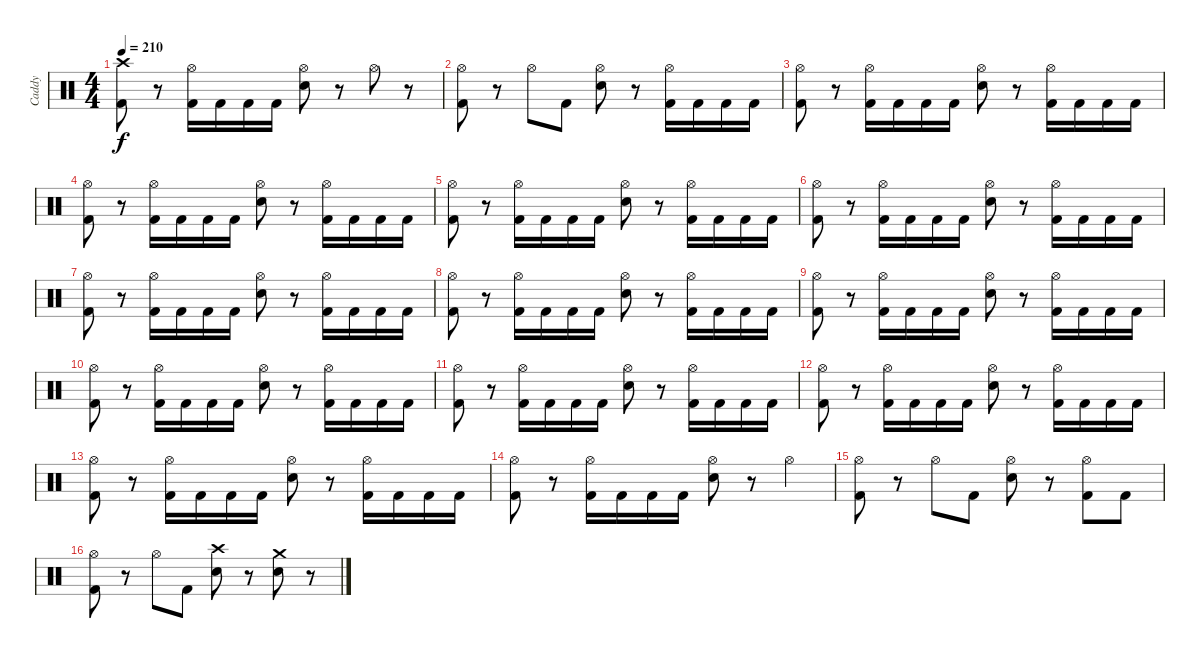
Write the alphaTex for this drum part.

\track ("Caddy" "Caddy") {instrument percussion}
\staff {score}
\articulation defaults
\ts (4 4)
\tempo 210
\clef neutral
\ks c
("Crash high (hit)" "Kick (hit) 2").8{dy f} r.8 ("Hi-Hat (open)" "Kick (hit) 2").16 "Kick (hit) 2".16 "Kick (hit) 2".16 "Kick (hit) 2".16 ("Hi-Hat (open)" "Electric Snare (hit)").8 r.8 "Hi-Hat (open)".8 r.8 |
("Hi-Hat (open)" "Kick (hit) 2").8 r.8 "Hi-Hat (open)".8 "Kick (hit) 2".8 ("Hi-Hat (open)" "Electric Snare (hit)").8 r.8 ("Hi-Hat (open)" "Kick (hit) 2").16 "Kick (hit) 2".16 "Kick (hit) 2".16 "Kick (hit) 2".16 |
("Hi-Hat (open)" "Kick (hit) 2").8 r.8 ("Hi-Hat (open)" "Kick (hit) 2").16 "Kick (hit) 2".16 "Kick (hit) 2".16 "Kick (hit) 2".16 ("Hi-Hat (open)" "Electric Snare (hit)").8 r.8 ("Hi-Hat (open)" "Kick (hit) 2").16 "Kick (hit) 2".16 "Kick (hit) 2".16 "Kick (hit) 2".16 |
("Hi-Hat (open)" "Kick (hit) 2").8 r.8 ("Hi-Hat (open)" "Kick (hit) 2").16 "Kick (hit) 2".16 "Kick (hit) 2".16 "Kick (hit) 2".16 ("Hi-Hat (open)" "Electric Snare (hit)").8 r.8 ("Hi-Hat (open)" "Kick (hit) 2").16 "Kick (hit) 2".16 "Kick (hit) 2".16 "Kick (hit) 2".16 |
("Hi-Hat (open)" "Kick (hit) 2").8 r.8 ("Hi-Hat (open)" "Kick (hit) 2").16 "Kick (hit) 2".16 "Kick (hit) 2".16 "Kick (hit) 2".16 ("Hi-Hat (open)" "Electric Snare (hit)").8 r.8 ("Hi-Hat (open)" "Kick (hit) 2").16 "Kick (hit) 2".16 "Kick (hit) 2".16 "Kick (hit) 2".16 |
("Hi-Hat (open)" "Kick (hit) 2").8 r.8 ("Hi-Hat (open)" "Kick (hit) 2").16 "Kick (hit) 2".16 "Kick (hit) 2".16 "Kick (hit) 2".16 ("Hi-Hat (open)" "Electric Snare (hit)").8 r.8 ("Hi-Hat (open)" "Kick (hit) 2").16 "Kick (hit) 2".16 "Kick (hit) 2".16 "Kick (hit) 2".16 |
("Hi-Hat (open)" "Kick (hit) 2").8 r.8 ("Hi-Hat (open)" "Kick (hit) 2").16 "Kick (hit) 2".16 "Kick (hit) 2".16 "Kick (hit) 2".16 ("Hi-Hat (open)" "Electric Snare (hit)").8 r.8 ("Hi-Hat (open)" "Kick (hit) 2").16 "Kick (hit) 2".16 "Kick (hit) 2".16 "Kick (hit) 2".16 |
("Hi-Hat (open)" "Kick (hit) 2").8 r.8 ("Hi-Hat (open)" "Kick (hit) 2").16 "Kick (hit) 2".16 "Kick (hit) 2".16 "Kick (hit) 2".16 ("Hi-Hat (open)" "Electric Snare (hit)").8 r.8 ("Hi-Hat (open)" "Kick (hit) 2").16 "Kick (hit) 2".16 "Kick (hit) 2".16 "Kick (hit) 2".16 |
("Hi-Hat (open)" "Kick (hit) 2").8 r.8 ("Hi-Hat (open)" "Kick (hit) 2").16 "Kick (hit) 2".16 "Kick (hit) 2".16 "Kick (hit) 2".16 ("Hi-Hat (open)" "Electric Snare (hit)").8 r.8 ("Hi-Hat (open)" "Kick (hit) 2").16 "Kick (hit) 2".16 "Kick (hit) 2".16 "Kick (hit) 2".16 |
("Hi-Hat (open)" "Kick (hit) 2").8 r.8 ("Hi-Hat (open)" "Kick (hit) 2").16 "Kick (hit) 2".16 "Kick (hit) 2".16 "Kick (hit) 2".16 ("Hi-Hat (open)" "Electric Snare (hit)").8 r.8 ("Hi-Hat (open)" "Kick (hit) 2").16 "Kick (hit) 2".16 "Kick (hit) 2".16 "Kick (hit) 2".16 |
("Hi-Hat (open)" "Kick (hit) 2").8 r.8 ("Hi-Hat (open)" "Kick (hit) 2").16 "Kick (hit) 2".16 "Kick (hit) 2".16 "Kick (hit) 2".16 ("Hi-Hat (open)" "Electric Snare (hit)").8 r.8 ("Hi-Hat (open)" "Kick (hit) 2").16 "Kick (hit) 2".16 "Kick (hit) 2".16 "Kick (hit) 2".16 |
("Hi-Hat (open)" "Kick (hit) 2").8 r.8 ("Hi-Hat (open)" "Kick (hit) 2").16 "Kick (hit) 2".16 "Kick (hit) 2".16 "Kick (hit) 2".16 ("Hi-Hat (open)" "Electric Snare (hit)").8 r.8 ("Hi-Hat (open)" "Kick (hit) 2").16 "Kick (hit) 2".16 "Kick (hit) 2".16 "Kick (hit) 2".16 |
("Hi-Hat (open)" "Kick (hit) 2").8 r.8 ("Hi-Hat (open)" "Kick (hit) 2").16 "Kick (hit) 2".16 "Kick (hit) 2".16 "Kick (hit) 2".16 ("Hi-Hat (open)" "Electric Snare (hit)").8 r.8 ("Hi-Hat (open)" "Kick (hit) 2").16 "Kick (hit) 2".16 "Kick (hit) 2".16 "Kick (hit) 2".16 |
("Hi-Hat (open)" "Kick (hit) 2").8 r.8 ("Hi-Hat (open)" "Kick (hit) 2").16 "Kick (hit) 2".16 "Kick (hit) 2".16 "Kick (hit) 2".16 ("Hi-Hat (open)" "Electric Snare (hit)").8 r.8 "Hi-Hat (open)".4 |
("Hi-Hat (open)" "Kick (hit) 2").8 r.8 "Hi-Hat (open)".8 "Kick (hit) 2".8 ("Hi-Hat (open)" "Electric Snare (hit)").8 r.8 ("Hi-Hat (open)" "Kick (hit) 2").8 "Kick (hit) 2".8 |
("Hi-Hat (open)" "Kick (hit) 2").8 r.8 "Hi-Hat (open)".8 "Kick (hit) 2".8 ("Crash high (hit)" "Electric Snare (hit)").8 r.8 ("Crash medium (hit)" "Electric Snare (hit)").8 r.8
